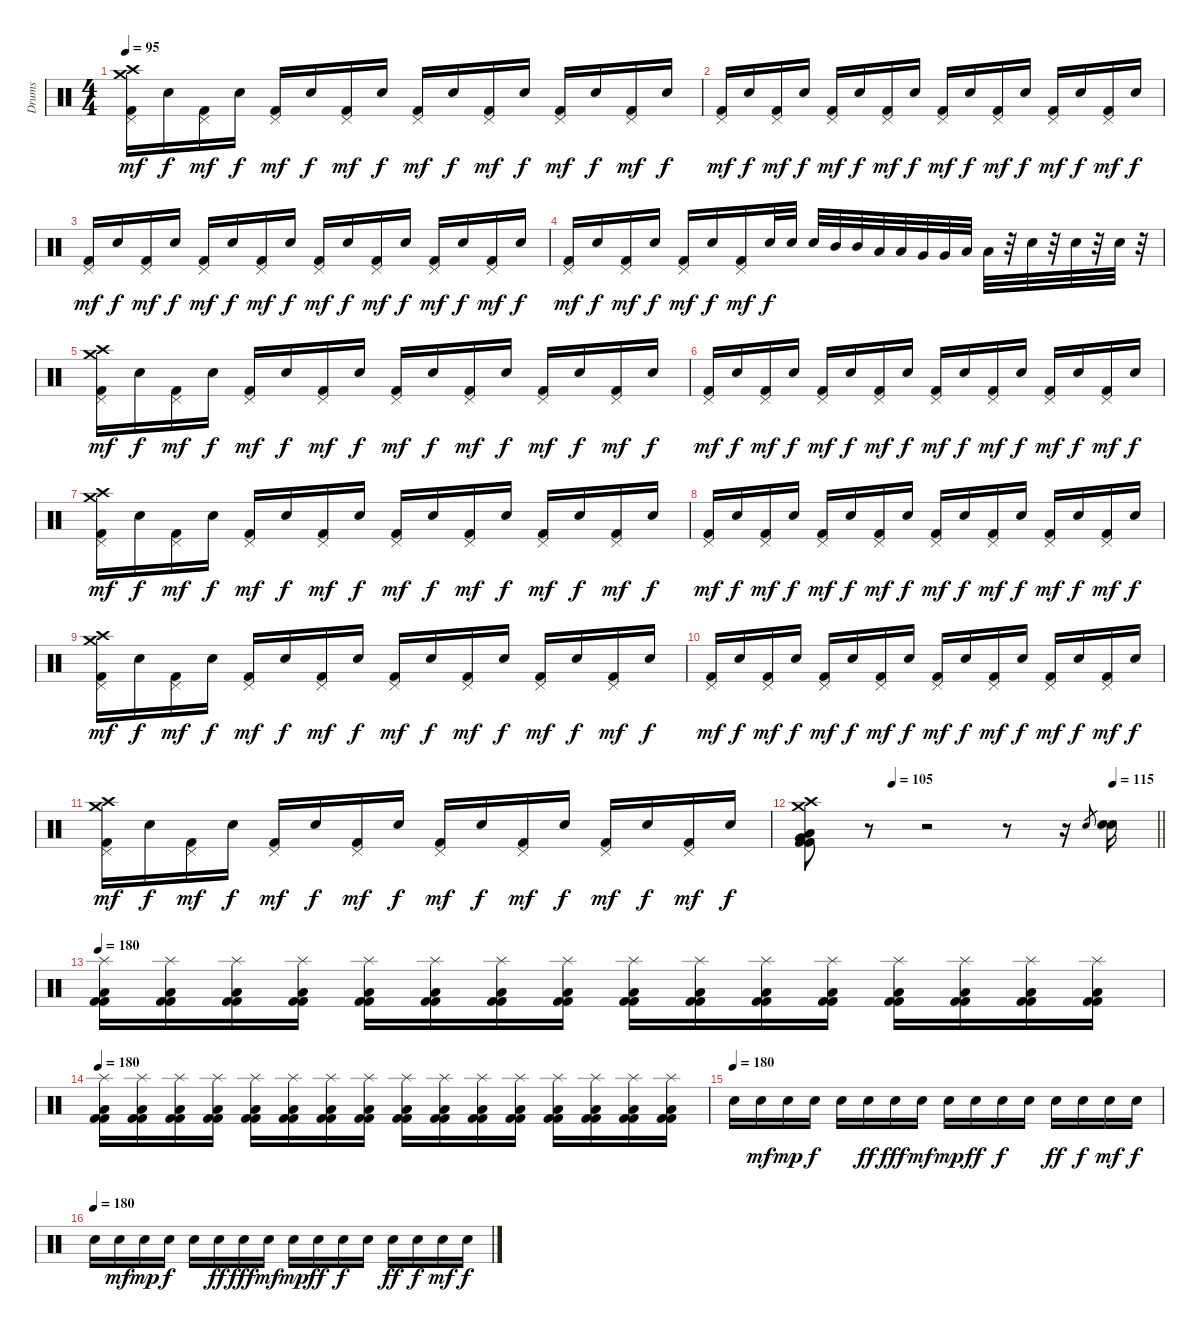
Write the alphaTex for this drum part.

\track ("Drums" "Drums") {instrument percussion}
\staff {score}
\articulation defaults
\ts (4 4)
\tempo 95
\clef neutral
\ks c
("Crash high (hit)" "Crash medium (hit)" "Pedal Hi-Hat (hit)" "Kick (hit) 2").16{dy mf} "Snare (hit) 2".16{dy f} ("Pedal Hi-Hat (hit)" "Kick (hit) 2").16{dy mf} "Snare (hit) 2".16{dy f} ("Pedal Hi-Hat (hit)" "Kick (hit) 2").16{dy mf} "Snare (hit) 2".16{dy f} ("Pedal Hi-Hat (hit)" "Kick (hit) 2").16{dy mf} "Snare (hit) 2".16{dy f} ("Pedal Hi-Hat (hit)" "Kick (hit) 2").16{dy mf} "Snare (hit) 2".16{dy f} ("Pedal Hi-Hat (hit)" "Kick (hit) 2").16{dy mf} "Snare (hit) 2".16{dy f} ("Pedal Hi-Hat (hit)" "Kick (hit) 2").16{dy mf} "Snare (hit) 2".16{dy f} ("Pedal Hi-Hat (hit)" "Kick (hit) 2").16{dy mf} "Snare (hit) 2".16{dy f} |
("Pedal Hi-Hat (hit)" "Kick (hit) 2").16{dy mf} "Snare (hit) 2".16{dy f} ("Pedal Hi-Hat (hit)" "Kick (hit) 2").16{dy mf} "Snare (hit) 2".16{dy f} ("Pedal Hi-Hat (hit)" "Kick (hit) 2").16{dy mf} "Snare (hit) 2".16{dy f} ("Pedal Hi-Hat (hit)" "Kick (hit) 2").16{dy mf} "Snare (hit) 2".16{dy f} ("Pedal Hi-Hat (hit)" "Kick (hit) 2").16{dy mf} "Snare (hit) 2".16{dy f} ("Pedal Hi-Hat (hit)" "Kick (hit) 2").16{dy mf} "Snare (hit) 2".16{dy f} ("Pedal Hi-Hat (hit)" "Kick (hit) 2").16{dy mf} "Snare (hit) 2".16{dy f} ("Pedal Hi-Hat (hit)" "Kick (hit) 2").16{dy mf} "Snare (hit) 2".16{dy f} |
("Pedal Hi-Hat (hit)" "Kick (hit) 2").16{dy mf} "Snare (hit) 2".16{dy f} ("Pedal Hi-Hat (hit)" "Kick (hit) 2").16{dy mf} "Snare (hit) 2".16{dy f} ("Pedal Hi-Hat (hit)" "Kick (hit) 2").16{dy mf} "Snare (hit) 2".16{dy f} ("Pedal Hi-Hat (hit)" "Kick (hit) 2").16{dy mf} "Snare (hit) 2".16{dy f} ("Pedal Hi-Hat (hit)" "Kick (hit) 2").16{dy mf} "Snare (hit) 2".16{dy f} ("Pedal Hi-Hat (hit)" "Kick (hit) 2").16{dy mf} "Snare (hit) 2".16{dy f} ("Pedal Hi-Hat (hit)" "Kick (hit) 2").16{dy mf} "Snare (hit) 2".16{dy f} ("Pedal Hi-Hat (hit)" "Kick (hit) 2").16{dy mf} "Snare (hit) 2".16{dy f} |
("Pedal Hi-Hat (hit)" "Kick (hit) 2").16{dy mf} "Snare (hit) 2".16{dy f} ("Pedal Hi-Hat (hit)" "Kick (hit) 2").16{dy mf} "Snare (hit) 2".16{dy f} ("Pedal Hi-Hat (hit)" "Kick (hit) 2").16{dy mf} "Snare (hit) 2".16{dy f} ("Pedal Hi-Hat (hit)" "Kick (hit) 2").16{dy mf} "Snare (hit) 2".32{dy f} "Snare (hit) 2".32 "Snare (hit) 2".32 "Mid Tom (hit)".32 "Mid Tom (hit)".32 "Low Tom (hit)".32 "Low Tom (hit)".32 "Very Low Tom (hit)".32 "Very Low Tom (hit)".32 "Low Floor Tom (hit)".32 "Low Floor Tom (hit)".32 r.32 "Snare (hit) 2".32 r.32 "Snare (hit) 2".32 r.32 "Snare (hit) 2".32 r.32 |
("Crash high (hit)" "Crash medium (hit)" "Pedal Hi-Hat (hit)" "Kick (hit) 2").16{dy mf} "Snare (hit) 2".16{dy f} ("Pedal Hi-Hat (hit)" "Kick (hit) 2").16{dy mf} "Snare (hit) 2".16{dy f} ("Pedal Hi-Hat (hit)" "Kick (hit) 2").16{dy mf} "Snare (hit) 2".16{dy f} ("Pedal Hi-Hat (hit)" "Kick (hit) 2").16{dy mf} "Snare (hit) 2".16{dy f} ("Pedal Hi-Hat (hit)" "Kick (hit) 2").16{dy mf} "Snare (hit) 2".16{dy f} ("Pedal Hi-Hat (hit)" "Kick (hit) 2").16{dy mf} "Snare (hit) 2".16{dy f} ("Pedal Hi-Hat (hit)" "Kick (hit) 2").16{dy mf} "Snare (hit) 2".16{dy f} ("Pedal Hi-Hat (hit)" "Kick (hit) 2").16{dy mf} "Snare (hit) 2".16{dy f} |
("Pedal Hi-Hat (hit)" "Kick (hit) 2").16{dy mf} "Snare (hit) 2".16{dy f} ("Pedal Hi-Hat (hit)" "Kick (hit) 2").16{dy mf} "Snare (hit) 2".16{dy f} ("Pedal Hi-Hat (hit)" "Kick (hit) 2").16{dy mf} "Snare (hit) 2".16{dy f} ("Pedal Hi-Hat (hit)" "Kick (hit) 2").16{dy mf} "Snare (hit) 2".16{dy f} ("Pedal Hi-Hat (hit)" "Kick (hit) 2").16{dy mf} "Snare (hit) 2".16{dy f} ("Pedal Hi-Hat (hit)" "Kick (hit) 2").16{dy mf} "Snare (hit) 2".16{dy f} ("Pedal Hi-Hat (hit)" "Kick (hit) 2").16{dy mf} "Snare (hit) 2".16{dy f} ("Pedal Hi-Hat (hit)" "Kick (hit) 2").16{dy mf} "Snare (hit) 2".16{dy f} |
("Crash high (hit)" "Crash medium (hit)" "Pedal Hi-Hat (hit)" "Kick (hit) 2").16{dy mf} "Snare (hit) 2".16{dy f} ("Pedal Hi-Hat (hit)" "Kick (hit) 2").16{dy mf} "Snare (hit) 2".16{dy f} ("Pedal Hi-Hat (hit)" "Kick (hit) 2").16{dy mf} "Snare (hit) 2".16{dy f} ("Pedal Hi-Hat (hit)" "Kick (hit) 2").16{dy mf} "Snare (hit) 2".16{dy f} ("Pedal Hi-Hat (hit)" "Kick (hit) 2").16{dy mf} "Snare (hit) 2".16{dy f} ("Pedal Hi-Hat (hit)" "Kick (hit) 2").16{dy mf} "Snare (hit) 2".16{dy f} ("Pedal Hi-Hat (hit)" "Kick (hit) 2").16{dy mf} "Snare (hit) 2".16{dy f} ("Pedal Hi-Hat (hit)" "Kick (hit) 2").16{dy mf} "Snare (hit) 2".16{dy f} |
("Pedal Hi-Hat (hit)" "Kick (hit) 2").16{dy mf} "Snare (hit) 2".16{dy f} ("Pedal Hi-Hat (hit)" "Kick (hit) 2").16{dy mf} "Snare (hit) 2".16{dy f} ("Pedal Hi-Hat (hit)" "Kick (hit) 2").16{dy mf} "Snare (hit) 2".16{dy f} ("Pedal Hi-Hat (hit)" "Kick (hit) 2").16{dy mf} "Snare (hit) 2".16{dy f} ("Pedal Hi-Hat (hit)" "Kick (hit) 2").16{dy mf} "Snare (hit) 2".16{dy f} ("Pedal Hi-Hat (hit)" "Kick (hit) 2").16{dy mf} "Snare (hit) 2".16{dy f} ("Pedal Hi-Hat (hit)" "Kick (hit) 2").16{dy mf} "Snare (hit) 2".16{dy f} ("Pedal Hi-Hat (hit)" "Kick (hit) 2").16{dy mf} "Snare (hit) 2".16{dy f} |
("Crash high (hit)" "Crash medium (hit)" "Pedal Hi-Hat (hit)" "Kick (hit) 2").16{dy mf} "Snare (hit) 2".16{dy f} ("Pedal Hi-Hat (hit)" "Kick (hit) 2").16{dy mf} "Snare (hit) 2".16{dy f} ("Pedal Hi-Hat (hit)" "Kick (hit) 2").16{dy mf} "Snare (hit) 2".16{dy f} ("Pedal Hi-Hat (hit)" "Kick (hit) 2").16{dy mf} "Snare (hit) 2".16{dy f} ("Pedal Hi-Hat (hit)" "Kick (hit) 2").16{dy mf} "Snare (hit) 2".16{dy f} ("Pedal Hi-Hat (hit)" "Kick (hit) 2").16{dy mf} "Snare (hit) 2".16{dy f} ("Pedal Hi-Hat (hit)" "Kick (hit) 2").16{dy mf} "Snare (hit) 2".16{dy f} ("Pedal Hi-Hat (hit)" "Kick (hit) 2").16{dy mf} "Snare (hit) 2".16{dy f} |
("Pedal Hi-Hat (hit)" "Kick (hit) 2").16{dy mf} "Snare (hit) 2".16{dy f} ("Pedal Hi-Hat (hit)" "Kick (hit) 2").16{dy mf} "Snare (hit) 2".16{dy f} ("Pedal Hi-Hat (hit)" "Kick (hit) 2").16{dy mf} "Snare (hit) 2".16{dy f} ("Pedal Hi-Hat (hit)" "Kick (hit) 2").16{dy mf} "Snare (hit) 2".16{dy f} ("Pedal Hi-Hat (hit)" "Kick (hit) 2").16{dy mf} "Snare (hit) 2".16{dy f} ("Pedal Hi-Hat (hit)" "Kick (hit) 2").16{dy mf} "Snare (hit) 2".16{dy f} ("Pedal Hi-Hat (hit)" "Kick (hit) 2").16{dy mf} "Snare (hit) 2".16{dy f} ("Pedal Hi-Hat (hit)" "Kick (hit) 2").16{dy mf} "Snare (hit) 2".16{dy f} |
("Crash high (hit)" "Crash medium (hit)" "Pedal Hi-Hat (hit)" "Kick (hit) 2").16{dy mf} "Snare (hit) 2".16{dy f} ("Pedal Hi-Hat (hit)" "Kick (hit) 2").16{dy mf} "Snare (hit) 2".16{dy f} ("Pedal Hi-Hat (hit)" "Kick (hit) 2").16{dy mf} "Snare (hit) 2".16{dy f} ("Pedal Hi-Hat (hit)" "Kick (hit) 2").16{dy mf} "Snare (hit) 2".16{dy f} ("Pedal Hi-Hat (hit)" "Kick (hit) 2").16{dy mf} "Snare (hit) 2".16{dy f} ("Pedal Hi-Hat (hit)" "Kick (hit) 2").16{dy mf} "Snare (hit) 2".16{dy f} ("Pedal Hi-Hat (hit)" "Kick (hit) 2").16{dy mf} "Snare (hit) 2".16{dy f} ("Pedal Hi-Hat (hit)" "Kick (hit) 2").16{dy mf} "Snare (hit) 2".16{dy f} |
\tempo (105 0.25)
\tempo (115 0.875)
\barLineRight lightlight
("Crash medium (hit)" "Crash high (hit)" "Very Low Tom (hit)" "Low Floor Tom (hit)" "Kick (hit) 2" "Kick (hit) 2").8 r.8 r.2 r.8 r.16 "Snare (hit) 2".8{gr} ("Snare (hit) 2" "Snare (hit) 2").16 |
\tempo 180
("Low Floor Tom (hit)" "Splash (hit)" "Kick (hit) 2" "Kick (hit) 2").16 ("Low Floor Tom (hit)" "Splash (hit)" "Kick (hit) 2" "Kick (hit) 2").16 ("Low Floor Tom (hit)" "Splash (hit)" "Kick (hit) 2" "Kick (hit) 2").16 ("Low Floor Tom (hit)" "Splash (hit)" "Kick (hit) 2" "Kick (hit) 2").16 ("Low Floor Tom (hit)" "Splash (hit)" "Kick (hit) 2" "Kick (hit) 2").16 ("Low Floor Tom (hit)" "Splash (hit)" "Kick (hit) 2" "Kick (hit) 2").16 ("Low Floor Tom (hit)" "Splash (hit)" "Kick (hit) 2" "Kick (hit) 2").16 ("Low Floor Tom (hit)" "Splash (hit)" "Kick (hit) 2" "Kick (hit) 2").16 ("Low Floor Tom (hit)" "Splash (hit)" "Kick (hit) 2" "Kick (hit) 2").16 ("Low Floor Tom (hit)" "Splash (hit)" "Kick (hit) 2" "Kick (hit) 2").16 ("Low Floor Tom (hit)" "Splash (hit)" "Kick (hit) 2" "Kick (hit) 2").16 ("Low Floor Tom (hit)" "Splash (hit)" "Kick (hit) 2" "Kick (hit) 2").16 ("Low Floor Tom (hit)" "Splash (hit)" "Kick (hit) 2" "Kick (hit) 2").16 ("Low Floor Tom (hit)" "Splash (hit)" "Kick (hit) 2" "Kick (hit) 2").16 ("Low Floor Tom (hit)" "Splash (hit)" "Kick (hit) 2" "Kick (hit) 2").16 ("Low Floor Tom (hit)" "Splash (hit)" "Kick (hit) 2" "Kick (hit) 2").16 |
\tempo 180
("Low Floor Tom (hit)" "Splash (hit)" "Kick (hit) 2" "Kick (hit) 2").16 ("Low Floor Tom (hit)" "Splash (hit)" "Kick (hit) 2" "Kick (hit) 2").16 ("Low Floor Tom (hit)" "Splash (hit)" "Kick (hit) 2" "Kick (hit) 2").16 ("Low Floor Tom (hit)" "Splash (hit)" "Kick (hit) 2" "Kick (hit) 2").16 ("Low Floor Tom (hit)" "Splash (hit)" "Kick (hit) 2" "Kick (hit) 2").16 ("Low Floor Tom (hit)" "Splash (hit)" "Kick (hit) 2" "Kick (hit) 2").16 ("Low Floor Tom (hit)" "Splash (hit)" "Kick (hit) 2" "Kick (hit) 2").16 ("Low Floor Tom (hit)" "Splash (hit)" "Kick (hit) 2" "Kick (hit) 2").16 ("Low Floor Tom (hit)" "Splash (hit)" "Kick (hit) 2" "Kick (hit) 2").16 ("Low Floor Tom (hit)" "Splash (hit)" "Kick (hit) 2" "Kick (hit) 2").16 ("Low Floor Tom (hit)" "Splash (hit)" "Kick (hit) 2" "Kick (hit) 2").16 ("Low Floor Tom (hit)" "Splash (hit)" "Kick (hit) 2" "Kick (hit) 2").16 ("Low Floor Tom (hit)" "Splash (hit)" "Kick (hit) 2" "Kick (hit) 2").16 ("Low Floor Tom (hit)" "Splash (hit)" "Kick (hit) 2" "Kick (hit) 2").16 ("Low Floor Tom (hit)" "Splash (hit)" "Kick (hit) 2" "Kick (hit) 2").16 ("Low Floor Tom (hit)" "Splash (hit)" "Kick (hit) 2" "Kick (hit) 2").16 |
\tempo (180)
"Snare (hit) 2".16 "Snare (hit) 2".16{dy mf} "Snare (hit) 2".16{dy mp} "Snare (hit) 2".16{dy f} "Snare (hit) 2".16 "Snare (hit) 2".16{dy ff} "Snare (hit) 2".16{dy fff} "Snare (hit) 2".16{dy mf} "Snare (hit) 2".16{dy mp} "Snare (hit) 2".16{dy ff} "Snare (hit) 2".16{dy f} "Snare (hit) 2".16 "Snare (hit) 2".16{dy ff} "Snare (hit) 2".16{dy f} "Snare (hit) 2".16{dy mf} "Snare (hit) 2".16{dy f} |
\tempo (180)
"Snare (hit) 2".16 "Snare (hit) 2".16{dy mf} "Snare (hit) 2".16{dy mp} "Snare (hit) 2".16{dy f} "Snare (hit) 2".16 "Snare (hit) 2".16{dy ff} "Snare (hit) 2".16{dy fff} "Snare (hit) 2".16{dy mf} "Snare (hit) 2".16{dy mp} "Snare (hit) 2".16{dy ff} "Snare (hit) 2".16{dy f} "Snare (hit) 2".16 "Snare (hit) 2".16{dy ff} "Snare (hit) 2".16{dy f} "Snare (hit) 2".16{dy mf} "Snare (hit) 2".16{dy f}
